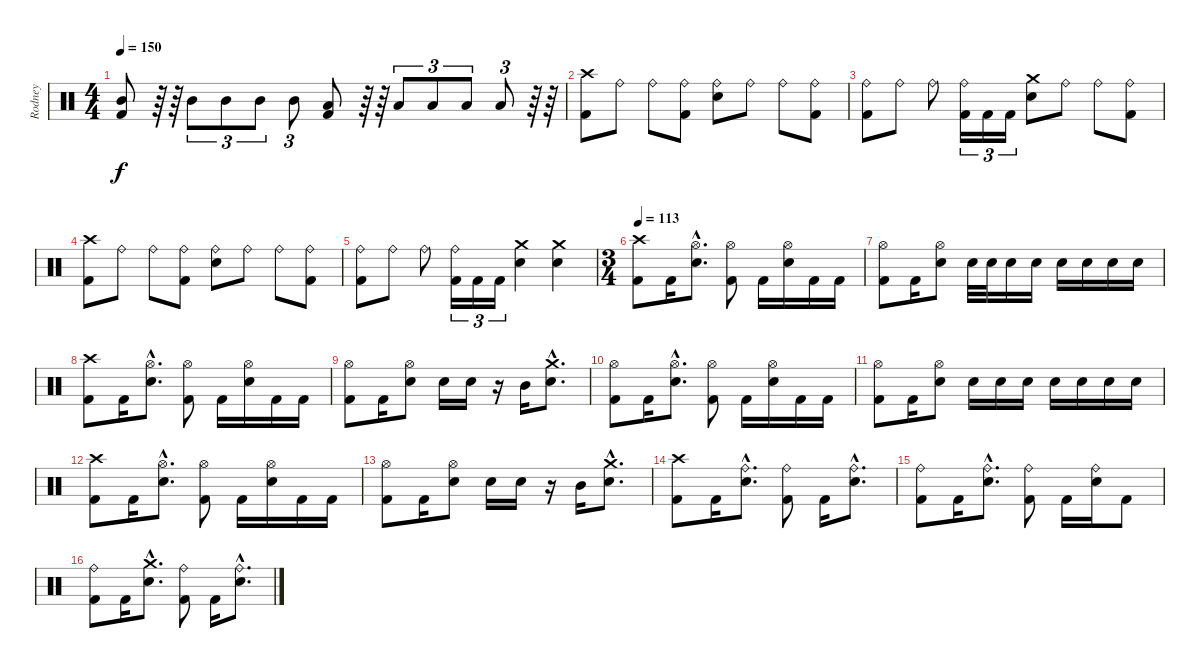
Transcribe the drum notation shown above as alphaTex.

\track ("Rodney" "Rodney") {instrument percussion}
\staff {score}
\articulation defaults
\ts (4 4)
\tempo 150
\clef neutral
\ks c
("Mid Tom (hit)" "Kick (hit) 2").8{dy f} r.64 r.64 "Mid Tom (hit)".8{tu (3 2)} "Mid Tom (hit)".8{tu (3 2)} "Mid Tom (hit)".8{tu (3 2)} "Mid Tom (hit)".8{tu (3 2)} ("Low Tom (hit)" "Kick (hit) 2").8 r.64 r.64 "Low Tom (hit)".8{tu (3 2)} "Low Tom (hit)".8{tu (3 2)} "Low Tom (hit)".8{tu (3 2)} "Low Tom (hit)".8{tu (3 2)} r.64 r.64 |
("Crash high (hit)" "Kick (hit) 2").8 "Ride (bell)".8 "Ride (bell)".8 ("Ride (bell)" "Kick (hit) 2").8 ("Ride (bell)" "Snare (hit) 2").8 "Ride (bell)".8 "Ride (bell)".8 ("Ride (bell)" "Kick (hit) 2").8 |
("Ride (bell)" "Kick (hit) 2").8 "Ride (bell)".8 "Ride (bell)".8 ("Ride (bell)" "Kick (hit) 2").16{tu (3 2)} "Kick (hit) 2".16{tu (3 2)} "Kick (hit) 2".16{tu (3 2)} ("Crash medium (hit)" "Snare (hit) 2").8 "Ride (bell)".8 "Ride (bell)".8 ("Ride (bell)" "Kick (hit) 2").8 |
("Crash high (hit)" "Kick (hit) 2").8 "Ride (bell)".8 "Ride (bell)".8 ("Ride (bell)" "Kick (hit) 2").8 ("Ride (bell)" "Snare (hit) 2").8 "Ride (bell)".8 "Ride (bell)".8 ("Ride (bell)" "Kick (hit) 2").8 |
("Ride (bell)" "Kick (hit) 2").8 "Ride (bell)".8 "Ride (bell)".8 ("Ride (bell)" "Kick (hit) 2").16{tu (3 2)} "Kick (hit) 2".16{tu (3 2)} "Kick (hit) 2".16{tu (3 2)} ("Crash medium (hit)" "Snare (hit) 2").4 ("Crash medium (hit)" "Snare (hit) 2").4 |
\ts (3 4)
\tempo 113
("Crash high (hit)" "Kick (hit) 2").8 "Kick (hit) 2".16 ("Hi-Hat (open)"{hac} "Snare (hit) 2"{hac}).8{d} ("Hi-Hat (open)" "Kick (hit) 2").8 "Kick (hit) 2".16 ("Hi-Hat (open)" "Snare (hit) 2").16 "Kick (hit) 2".16 "Kick (hit) 2".16 |
("Hi-Hat (open)" "Kick (hit) 2").8 "Kick (hit) 2".16 ("Hi-Hat (open)" "Snare (hit) 2").8 "Snare (hit) 2".32 "Snare (hit) 2".32 "Snare (hit) 2".16 "Snare (hit) 2".16 "Snare (hit) 2".16 "Snare (hit) 2".16 "Snare (hit) 2".16 "Snare (hit) 2".16 |
("Crash high (hit)" "Kick (hit) 2").8 "Kick (hit) 2".16 ("Hi-Hat (open)"{hac} "Snare (hit) 2"{hac}).8{d} ("Hi-Hat (open)" "Kick (hit) 2").8 "Kick (hit) 2".16 ("Hi-Hat (open)" "Snare (hit) 2").16 "Kick (hit) 2".16 "Kick (hit) 2".16 |
("Hi-Hat (open)" "Kick (hit) 2").8 "Kick (hit) 2".16 ("Hi-Hat (open)" "Snare (hit) 2").8 "Snare (hit) 2".16 "Snare (hit) 2".16 r.16 "Mid Tom (hit)".16 ("Crash medium (hit)"{hac} "Snare (hit) 2"{hac}).8{d} |
("Hi-Hat (open)" "Kick (hit) 2").8 "Kick (hit) 2".16 ("Hi-Hat (open)"{hac} "Snare (hit) 2"{hac}).8{d} ("Hi-Hat (open)" "Kick (hit) 2").8 "Kick (hit) 2".16 ("Hi-Hat (open)" "Snare (hit) 2").16 "Kick (hit) 2".16 "Kick (hit) 2".16 |
("Hi-Hat (open)" "Kick (hit) 2").8 "Kick (hit) 2".16 ("Hi-Hat (open)" "Snare (hit) 2").8 "Snare (hit) 2".16 "Snare (hit) 2".16 "Snare (hit) 2".16 "Snare (hit) 2".16 "Snare (hit) 2".16 "Snare (hit) 2".16 "Snare (hit) 2".16 |
("Crash high (hit)" "Kick (hit) 2").8 "Kick (hit) 2".16 ("Hi-Hat (open)"{hac} "Snare (hit) 2"{hac}).8{d} ("Hi-Hat (open)" "Kick (hit) 2").8 "Kick (hit) 2".16 ("Hi-Hat (open)" "Snare (hit) 2").16 "Kick (hit) 2".16 "Kick (hit) 2".16 |
("Hi-Hat (open)" "Kick (hit) 2").8 "Kick (hit) 2".16 ("Hi-Hat (open)" "Snare (hit) 2").8 "Snare (hit) 2".16 "Snare (hit) 2".16 r.16 "Mid Tom (hit)".16 ("Crash medium (hit)"{hac} "Snare (hit) 2"{hac}).8{d} |
("Crash high (hit)" "Kick (hit) 2").8 "Kick (hit) 2".16 ("Ride (bell)"{hac} "Snare (hit) 2"{hac}).8{d} ("Ride (bell)" "Kick (hit) 2").8 "Kick (hit) 2".16 ("Ride (bell)"{hac} "Snare (hit) 2"{hac}).8{d} |
("Ride (bell)" "Kick (hit) 2").8 "Kick (hit) 2".16 ("Ride (bell)"{hac} "Snare (hit) 2"{hac}).8{d} ("Ride (bell)" "Kick (hit) 2").8 "Kick (hit) 2".16 ("Ride (bell)" "Snare (hit) 2").16 "Kick (hit) 2".8 |
("Ride (bell)" "Kick (hit) 2").8 "Kick (hit) 2".16 ("Crash medium (hit)"{hac} "Snare (hit) 2"{hac}).8{d} ("Ride (bell)" "Kick (hit) 2").8 "Kick (hit) 2".16 ("Ride (bell)"{hac} "Snare (hit) 2"{hac}).8{d}
